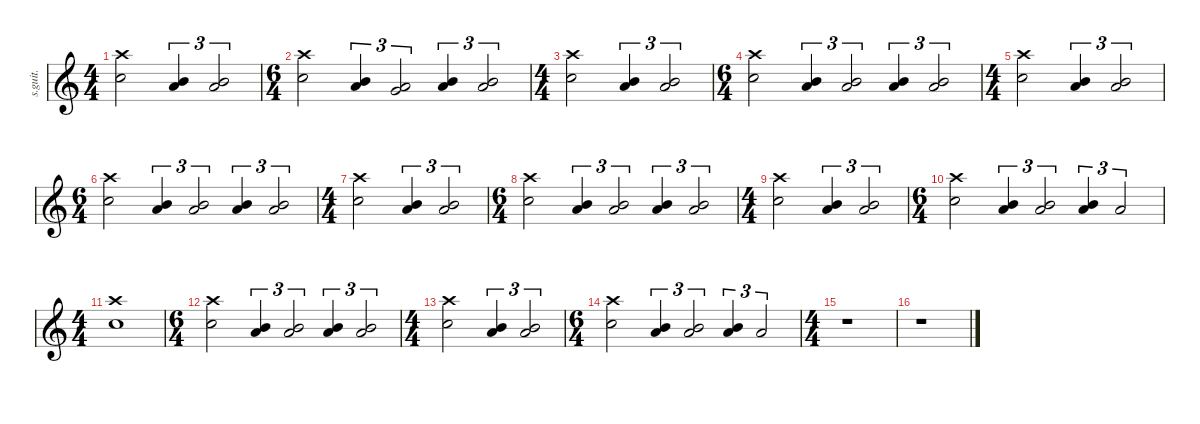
\defaultSystemsLayout 4
\hideDynamics
\bracketExtendMode nobrackets
\track ("Lars Ulrich (Drums)" "s.guit.") {instrument percussion}
\staff {score}
\articulation defaults
\ts (4 4)
\beaming (8 2 2 2 2)
\tempo (118 hide)
\clef g2
\ks c
("Crash high (hit)" "Snare (hit) 2").2{lyrics (0 "") lyrics (1 "") lyrics (2 "") lyrics (3 "") lyrics (4 "") dy f} ("Low Tom (hit)" "Mid Tom (hit)").4{tu (3 2) lyrics (0 "") lyrics (1 "") lyrics (2 "") lyrics (3 "") lyrics (4 "")} ("Low Tom (hit)" "Mid Tom (hit)").2{tu (3 2) lyrics (0 "") lyrics (1 "") lyrics (2 "") lyrics (3 "") lyrics (4 "")} |
\ts (6 4)
\beaming (8 2 2 2 2)
("Crash high (hit)" "Snare (hit) 2").2{lyrics (0 "") lyrics (1 "") lyrics (2 "") lyrics (3 "") lyrics (4 "")} ("Low Tom (hit)" "Mid Tom (hit)").4{tu (3 2) lyrics (0 "") lyrics (1 "") lyrics (2 "") lyrics (3 "") lyrics (4 "")} ("Low Tom (hit)" "Very Low Tom (hit)").2{tu (3 2) lyrics (0 "") lyrics (1 "") lyrics (2 "") lyrics (3 "") lyrics (4 "")} ("Low Tom (hit)" "Mid Tom (hit)").4{tu (3 2) lyrics (0 "") lyrics (1 "") lyrics (2 "") lyrics (3 "") lyrics (4 "")} ("Low Tom (hit)" "Mid Tom (hit)").2{tu (3 2) lyrics (0 "") lyrics (1 "") lyrics (2 "") lyrics (3 "") lyrics (4 "")} |
\ts (4 4)
\beaming (8 2 2 2 2)
("Crash high (hit)" "Snare (hit) 2").2{lyrics (0 "") lyrics (1 "") lyrics (2 "") lyrics (3 "") lyrics (4 "") dy mf} ("Low Tom (hit)" "Mid Tom (hit)").4{tu (3 2) lyrics (0 "") lyrics (1 "") lyrics (2 "") lyrics (3 "") lyrics (4 "")} ("Low Tom (hit)" "Mid Tom (hit)").2{tu (3 2) lyrics (0 "") lyrics (1 "") lyrics (2 "") lyrics (3 "") lyrics (4 "")} |
\ts (6 4)
\beaming (8 2 2 2 2)
("Crash high (hit)" "Snare (hit) 2").2{lyrics (0 "") lyrics (1 "") lyrics (2 "") lyrics (3 "") lyrics (4 "")} ("Low Tom (hit)" "Mid Tom (hit)").4{tu (3 2) lyrics (0 "") lyrics (1 "") lyrics (2 "") lyrics (3 "") lyrics (4 "")} ("Low Tom (hit)" "Mid Tom (hit)").2{tu (3 2) lyrics (0 "") lyrics (1 "") lyrics (2 "") lyrics (3 "") lyrics (4 "")} ("Low Tom (hit)" "Mid Tom (hit)").4{tu (3 2) lyrics (0 "") lyrics (1 "") lyrics (2 "") lyrics (3 "") lyrics (4 "") dy f} ("Low Tom (hit)" "Mid Tom (hit)").2{tu (3 2) lyrics (0 "") lyrics (1 "") lyrics (2 "") lyrics (3 "") lyrics (4 "")} |
\ts (4 4)
\beaming (8 2 2 2 2)
("Crash high (hit)" "Snare (hit) 2").2{lyrics (0 "") lyrics (1 "") lyrics (2 "") lyrics (3 "") lyrics (4 "") dy mp} ("Low Tom (hit)" "Mid Tom (hit)").4{tu (3 2) lyrics (0 "") lyrics (1 "") lyrics (2 "") lyrics (3 "") lyrics (4 "")} ("Low Tom (hit)" "Mid Tom (hit)").2{tu (3 2) lyrics (0 "") lyrics (1 "") lyrics (2 "") lyrics (3 "") lyrics (4 "")} |
\ts (6 4)
\beaming (8 2 2 2 2)
("Crash high (hit)" "Snare (hit) 2").2{lyrics (0 "") lyrics (1 "") lyrics (2 "") lyrics (3 "") lyrics (4 "")} ("Low Tom (hit)" "Mid Tom (hit)").4{tu (3 2) lyrics (0 "") lyrics (1 "") lyrics (2 "") lyrics (3 "") lyrics (4 "")} ("Low Tom (hit)" "Mid Tom (hit)").2{tu (3 2) lyrics (0 "") lyrics (1 "") lyrics (2 "") lyrics (3 "") lyrics (4 "")} ("Low Tom (hit)" "Mid Tom (hit)").4{tu (3 2) lyrics (0 "") lyrics (1 "") lyrics (2 "") lyrics (3 "") lyrics (4 "")} ("Low Tom (hit)" "Mid Tom (hit)").2{tu (3 2) lyrics (0 "") lyrics (1 "") lyrics (2 "") lyrics (3 "") lyrics (4 "")} |
\ts (4 4)
\beaming (8 2 2 2 2)
("Crash high (hit)" "Snare (hit) 2").2{lyrics (0 "") lyrics (1 "") lyrics (2 "") lyrics (3 "") lyrics (4 "") dy p} ("Low Tom (hit)" "Mid Tom (hit)").4{tu (3 2) lyrics (0 "") lyrics (1 "") lyrics (2 "") lyrics (3 "") lyrics (4 "")} ("Low Tom (hit)" "Mid Tom (hit)").2{tu (3 2) lyrics (0 "") lyrics (1 "") lyrics (2 "") lyrics (3 "") lyrics (4 "")} |
\ts (6 4)
\beaming (8 2 2 2 2)
("Crash high (hit)" "Snare (hit) 2").2{lyrics (0 "") lyrics (1 "") lyrics (2 "") lyrics (3 "") lyrics (4 "")} ("Low Tom (hit)" "Mid Tom (hit)").4{tu (3 2) lyrics (0 "") lyrics (1 "") lyrics (2 "") lyrics (3 "") lyrics (4 "")} ("Low Tom (hit)" "Mid Tom (hit)").2{tu (3 2) lyrics (0 "") lyrics (1 "") lyrics (2 "") lyrics (3 "") lyrics (4 "")} ("Low Tom (hit)" "Mid Tom (hit)").4{tu (3 2) lyrics (0 "") lyrics (1 "") lyrics (2 "") lyrics (3 "") lyrics (4 "")} ("Low Tom (hit)" "Mid Tom (hit)").2{tu (3 2) lyrics (0 "") lyrics (1 "") lyrics (2 "") lyrics (3 "") lyrics (4 "")} |
\ts (4 4)
\beaming (8 2 2 2 2)
("Crash high (hit)" "Snare (hit) 2").2{lyrics (0 "") lyrics (1 "") lyrics (2 "") lyrics (3 "") lyrics (4 "") dy pp} ("Low Tom (hit)" "Mid Tom (hit)").4{tu (3 2) lyrics (0 "") lyrics (1 "") lyrics (2 "") lyrics (3 "") lyrics (4 "")} ("Low Tom (hit)" "Mid Tom (hit)").2{tu (3 2) lyrics (0 "") lyrics (1 "") lyrics (2 "") lyrics (3 "") lyrics (4 "")} |
\ts (6 4)
\beaming (8 2 2 2 2)
("Crash high (hit)" "Snare (hit) 2").2{lyrics (0 "") lyrics (1 "") lyrics (2 "") lyrics (3 "") lyrics (4 "")} ("Low Tom (hit)" "Mid Tom (hit)").4{tu (3 2) lyrics (0 "") lyrics (1 "") lyrics (2 "") lyrics (3 "") lyrics (4 "")} ("Low Tom (hit)" "Mid Tom (hit)").2{tu (3 2) lyrics (0 "") lyrics (1 "") lyrics (2 "") lyrics (3 "") lyrics (4 "")} ("Low Tom (hit)" "Mid Tom (hit)").4{tu (3 2) lyrics (0 "") lyrics (1 "") lyrics (2 "") lyrics (3 "") lyrics (4 "")} "Low Tom (hit)".2{tu (3 2) lyrics (0 "") lyrics (1 "") lyrics (2 "") lyrics (3 "") lyrics (4 "")} |
\ts (4 4)
\beaming (8 2 2 2 2)
("Crash high (hit)" "Snare (hit) 2").1{lyrics (0 "") lyrics (1 "") lyrics (2 "") lyrics (3 "") lyrics (4 "") dy ppp} |
\ts (6 4)
\beaming (8 2 2 2 2)
("Crash high (hit)" "Snare (hit) 2").2{lyrics (0 "") lyrics (1 "") lyrics (2 "") lyrics (3 "") lyrics (4 "")} ("Low Tom (hit)" "Mid Tom (hit)").4{tu (3 2) lyrics (0 "") lyrics (1 "") lyrics (2 "") lyrics (3 "") lyrics (4 "")} ("Low Tom (hit)" "Mid Tom (hit)").2{tu (3 2) lyrics (0 "") lyrics (1 "") lyrics (2 "") lyrics (3 "") lyrics (4 "")} ("Low Tom (hit)" "Mid Tom (hit)").4{tu (3 2) lyrics (0 "") lyrics (1 "") lyrics (2 "") lyrics (3 "") lyrics (4 "")} ("Low Tom (hit)" "Mid Tom (hit)").2{tu (3 2) lyrics (0 "") lyrics (1 "") lyrics (2 "") lyrics (3 "") lyrics (4 "")} |
\ts (4 4)
\beaming (8 2 2 2 2)
("Crash high (hit)" "Snare (hit) 2").2{lyrics (0 "") lyrics (1 "") lyrics (2 "") lyrics (3 "") lyrics (4 "") dy pp} ("Low Tom (hit)" "Mid Tom (hit)").4{tu (3 2) lyrics (0 "") lyrics (1 "") lyrics (2 "") lyrics (3 "") lyrics (4 "")} ("Low Tom (hit)" "Mid Tom (hit)").2{tu (3 2) lyrics (0 "") lyrics (1 "") lyrics (2 "") lyrics (3 "") lyrics (4 "")} |
\ts (6 4)
\beaming (8 2 2 2 2)
("Crash high (hit)" "Snare (hit) 2").2{lyrics (0 "") lyrics (1 "") lyrics (2 "") lyrics (3 "") lyrics (4 "")} ("Low Tom (hit)" "Mid Tom (hit)").4{tu (3 2) lyrics (0 "") lyrics (1 "") lyrics (2 "") lyrics (3 "") lyrics (4 "")} ("Low Tom (hit)" "Mid Tom (hit)").2{tu (3 2) lyrics (0 "") lyrics (1 "") lyrics (2 "") lyrics (3 "") lyrics (4 "")} ("Low Tom (hit)" "Mid Tom (hit)").4{tu (3 2) lyrics (0 "") lyrics (1 "") lyrics (2 "") lyrics (3 "") lyrics (4 "")} "Low Tom (hit)".2{tu (3 2) lyrics (0 "") lyrics (1 "") lyrics (2 "") lyrics (3 "") lyrics (4 "")} |
\ts (4 4)
\beaming (8 2 2 2 2)
r.1 |
r.1
